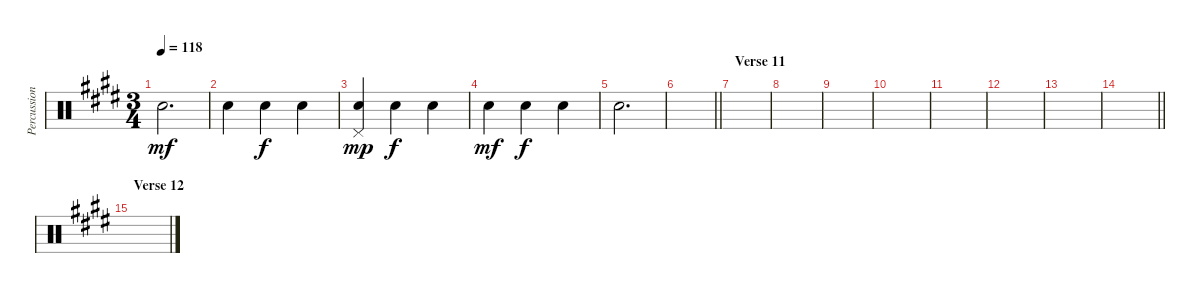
\track ("Percussion" "Percussion") {instrument percussion}
\staff {score}
\articulation defaults
\ts (3 4)
\tempo 118
\clef neutral
\ks e "Snare (hit) 2".2{d dy mf}
|
"Snare (hit) 2".4 "Snare (hit) 2".4{dy f} "Snare (hit) 2".4 |
("Hand Clap (hit)" "Pedal Hi-Hat (hit)").4{dy mp} "Snare (hit) 2".4{dy f} "Snare (hit) 2".4 |
"Snare (hit) 2".4{dy mf} "Snare (hit) 2".4{dy f} "Snare (hit) 2".4 |
"Hand Clap (hit)".2{d} |
\barLineRight lightlight
|
\section ("" "Verse 11")
|
|
|
|
|
|
|
\barLineRight lightlight
|
\section ("" "Verse 12")
